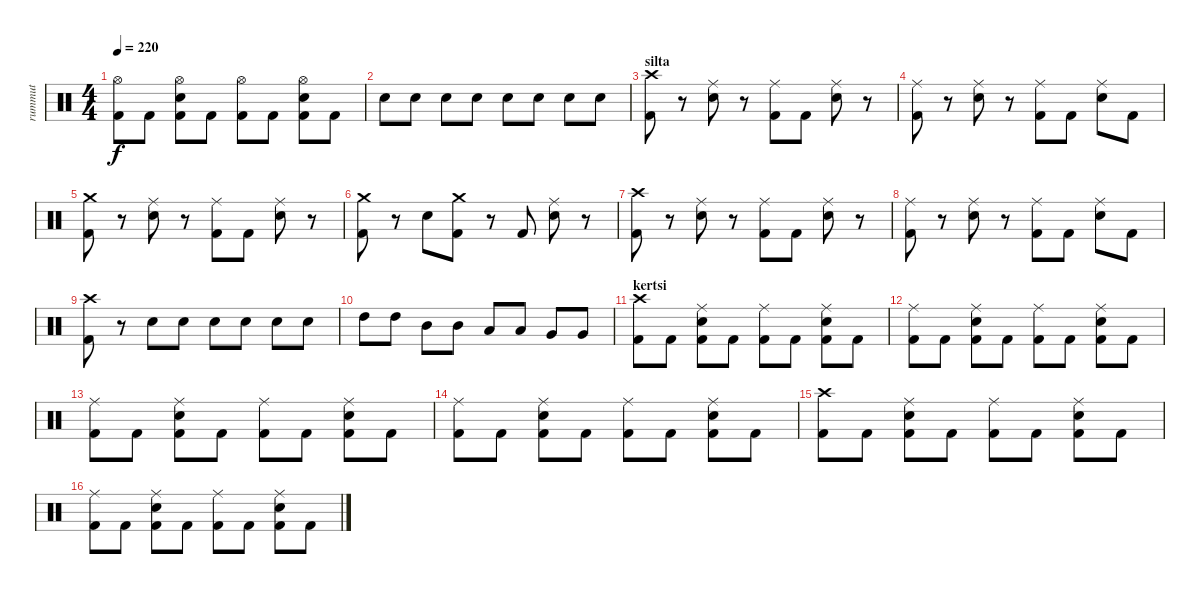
\track ("rummut" "rummut") {instrument percussion}
\staff {score}
\articulation defaults
\ts (4 4)
\tempo 220
\clef neutral
\ks c
("Hi-Hat (open)" "Kick (hit) 2").8{dy f} "Kick (hit) 2".8 ("Hi-Hat (open)" "Electric Snare (hit)" "Kick (hit) 2").8 "Kick (hit) 2".8 ("Hi-Hat (open)" "Kick (hit) 2").8 "Kick (hit) 2".8 ("Hi-Hat (open)" "Electric Snare (hit)" "Kick (hit) 2").8 "Kick (hit) 2".8 |
"Electric Snare (hit)".8 "Electric Snare (hit)".8 "Electric Snare (hit)".8 "Electric Snare (hit)".8 "Electric Snare (hit)".8 "Electric Snare (hit)".8 "Electric Snare (hit)".8 "Electric Snare (hit)".8 |
\section ("" "silta")
("Crash high (hit)" "Kick (hit) 2").8 r.8 ("Ride (middle)" "Electric Snare (hit)").8 r.8 ("Ride (middle)" "Kick (hit) 2").8 "Kick (hit) 2".8 ("Ride (middle)" "Electric Snare (hit)").8 r.8 |
("Ride (middle)" "Kick (hit) 2").8 r.8 ("Ride (middle)" "Electric Snare (hit)").8 r.8 ("Ride (middle)" "Kick (hit) 2").8 "Kick (hit) 2".8 ("Ride (middle)" "Electric Snare (hit)").8 "Kick (hit) 2".8 |
("Crash medium (hit)" "Kick (hit) 2").8 r.8 ("Ride (middle)" "Electric Snare (hit)").8 r.8 ("Ride (middle)" "Kick (hit) 2").8 "Kick (hit) 2".8 ("Ride (middle)" "Electric Snare (hit)").8 r.8 |
("Crash medium (hit)" "Kick (hit) 2").8 r.8 "Electric Snare (hit)".8 ("Crash medium (hit)" "Kick (hit) 2").8 r.8 "Kick (hit) 2".8 ("Ride (middle)" "Electric Snare (hit)").8 r.8 |
("Crash high (hit)" "Kick (hit) 2").8 r.8 ("Ride (middle)" "Electric Snare (hit)").8 r.8 ("Ride (middle)" "Kick (hit) 2").8 "Kick (hit) 2".8 ("Ride (middle)" "Electric Snare (hit)").8 r.8 |
("Ride (middle)" "Kick (hit) 2").8 r.8 ("Ride (middle)" "Electric Snare (hit)").8 r.8 ("Ride (middle)" "Kick (hit) 2").8 "Kick (hit) 2".8 ("Ride (middle)" "Electric Snare (hit)").8 "Kick (hit) 2".8 |
("Crash high (hit)" "Kick (hit) 2").8 r.8 "Electric Snare (hit)".8 "Electric Snare (hit)".8 "Electric Snare (hit)".8 "Electric Snare (hit)".8 "Electric Snare (hit)".8 "Electric Snare (hit)".8 |
"High Tom (hit)".8 "High Tom (hit)".8 "Mid Tom (hit)".8 "Mid Tom (hit)".8 "Low Tom (hit)".8 "Low Tom (hit)".8 "Very Low Tom (hit)".8 "Very Low Tom (hit)".8 |
\section ("" "kertsi")
("Crash high (hit)" "Kick (hit) 2").8 "Kick (hit) 2".8 ("Ride (middle)" "Electric Snare (hit)" "Kick (hit) 2").8 "Kick (hit) 2".8 ("Ride (middle)" "Kick (hit) 2").8 "Kick (hit) 2".8 ("Ride (middle)" "Electric Snare (hit)" "Kick (hit) 2").8 "Kick (hit) 2".8 |
("Ride (middle)" "Kick (hit) 2").8 "Kick (hit) 2".8 ("Ride (middle)" "Electric Snare (hit)" "Kick (hit) 2").8 "Kick (hit) 2".8 ("Ride (middle)" "Kick (hit) 2").8 "Kick (hit) 2".8 ("Ride (middle)" "Electric Snare (hit)" "Kick (hit) 2").8 "Kick (hit) 2".8 |
("Ride (middle)" "Kick (hit) 2").8 "Kick (hit) 2".8 ("Ride (middle)" "Electric Snare (hit)" "Kick (hit) 2").8 "Kick (hit) 2".8 ("Ride (middle)" "Kick (hit) 2").8 "Kick (hit) 2".8 ("Ride (middle)" "Electric Snare (hit)" "Kick (hit) 2").8 "Kick (hit) 2".8 |
("Ride (middle)" "Kick (hit) 2").8 "Kick (hit) 2".8 ("Ride (middle)" "Electric Snare (hit)" "Kick (hit) 2").8 "Kick (hit) 2".8 ("Ride (middle)" "Kick (hit) 2").8 "Kick (hit) 2".8 ("Ride (middle)" "Electric Snare (hit)" "Kick (hit) 2").8 "Kick (hit) 2".8 |
("Crash high (hit)" "Kick (hit) 2").8 "Kick (hit) 2".8 ("Ride (middle)" "Electric Snare (hit)" "Kick (hit) 2").8 "Kick (hit) 2".8 ("Ride (middle)" "Kick (hit) 2").8 "Kick (hit) 2".8 ("Ride (middle)" "Electric Snare (hit)" "Kick (hit) 2").8 "Kick (hit) 2".8 |
("Ride (middle)" "Kick (hit) 2").8 "Kick (hit) 2".8 ("Ride (middle)" "Electric Snare (hit)" "Kick (hit) 2").8 "Kick (hit) 2".8 ("Ride (middle)" "Kick (hit) 2").8 "Kick (hit) 2".8 ("Ride (middle)" "Electric Snare (hit)" "Kick (hit) 2").8 "Kick (hit) 2".8
